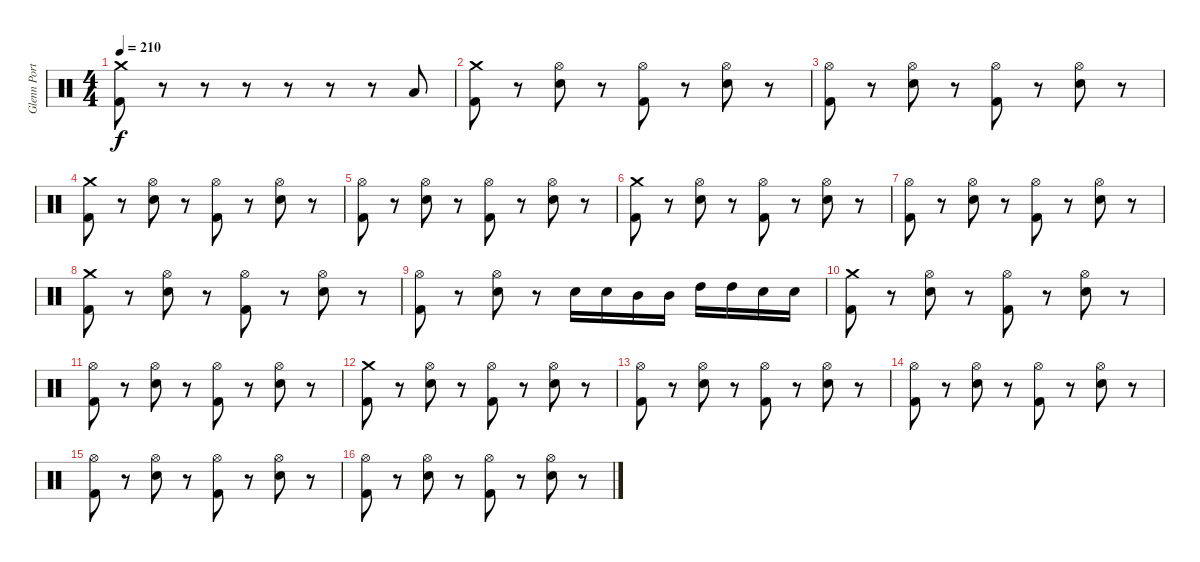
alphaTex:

\track ("Glenn Porter - Drums" "Glenn Port") {instrument percussion}
\staff {score}
\articulation defaults
\ts (4 4)
\tempo 210
\clef neutral
\ks c
("Crash medium (hit)" "Kick (hit) 2").8{dy f} r.8 r.8 r.8 r.8 r.8 r.8 "Low Tom (hit)".8 |
("Crash medium (hit)" "Kick (hit) 2").8 r.8 ("Hi-Hat (open)" "Electric Snare (hit)").8 r.8 ("Hi-Hat (open)" "Kick (hit) 2").8 r.8 ("Hi-Hat (open)" "Electric Snare (hit)").8 r.8 |
("Hi-Hat (open)" "Kick (hit) 2").8 r.8 ("Hi-Hat (open)" "Electric Snare (hit)").8 r.8 ("Hi-Hat (open)" "Kick (hit) 2").8 r.8 ("Hi-Hat (open)" "Electric Snare (hit)").8 r.8 |
("Crash medium (hit)" "Kick (hit) 2").8 r.8 ("Hi-Hat (open)" "Electric Snare (hit)").8 r.8 ("Hi-Hat (open)" "Kick (hit) 2").8 r.8 ("Hi-Hat (open)" "Electric Snare (hit)").8 r.8 |
("Hi-Hat (open)" "Kick (hit) 2").8 r.8 ("Hi-Hat (open)" "Electric Snare (hit)").8 r.8 ("Hi-Hat (open)" "Kick (hit) 2").8 r.8 ("Hi-Hat (open)" "Electric Snare (hit)").8 r.8 |
("Crash medium (hit)" "Kick (hit) 2").8 r.8 ("Hi-Hat (open)" "Electric Snare (hit)").8 r.8 ("Hi-Hat (open)" "Kick (hit) 2").8 r.8 ("Hi-Hat (open)" "Electric Snare (hit)").8 r.8 |
("Hi-Hat (open)" "Kick (hit) 2").8 r.8 ("Hi-Hat (open)" "Electric Snare (hit)").8 r.8 ("Hi-Hat (open)" "Kick (hit) 2").8 r.8 ("Hi-Hat (open)" "Electric Snare (hit)").8 r.8 |
("Crash medium (hit)" "Kick (hit) 2").8 r.8 ("Hi-Hat (open)" "Electric Snare (hit)").8 r.8 ("Hi-Hat (open)" "Kick (hit) 2").8 r.8 ("Hi-Hat (open)" "Electric Snare (hit)").8 r.8 |
("Hi-Hat (open)" "Kick (hit) 2").8 r.8 ("Hi-Hat (open)" "Electric Snare (hit)").8 r.8 "Electric Snare (hit)".16 "Electric Snare (hit)".16 "Mid Tom (hit)".16 "Mid Tom (hit)".16 "High Tom (hit)".16 "High Tom (hit)".16 "Electric Snare (hit)".16 "Electric Snare (hit)".16 |
("Crash medium (hit)" "Kick (hit) 2").8 r.8 ("Hi-Hat (open)" "Electric Snare (hit)").8 r.8 ("Hi-Hat (open)" "Kick (hit) 2").8 r.8 ("Hi-Hat (open)" "Electric Snare (hit)").8 r.8 |
("Hi-Hat (open)" "Kick (hit) 2").8 r.8 ("Hi-Hat (open)" "Electric Snare (hit)").8 r.8 ("Hi-Hat (open)" "Kick (hit) 2").8 r.8 ("Hi-Hat (open)" "Electric Snare (hit)").8 r.8 |
("Crash medium (hit)" "Kick (hit) 2").8 r.8 ("Hi-Hat (open)" "Electric Snare (hit)").8 r.8 ("Hi-Hat (open)" "Kick (hit) 2").8 r.8 ("Hi-Hat (open)" "Electric Snare (hit)").8 r.8 |
("Hi-Hat (open)" "Kick (hit) 2").8 r.8 ("Hi-Hat (open)" "Electric Snare (hit)").8 r.8 ("Hi-Hat (open)" "Kick (hit) 2").8 r.8 ("Hi-Hat (open)" "Electric Snare (hit)").8 r.8 |
("Hi-Hat (open)" "Kick (hit) 2").8 r.8 ("Hi-Hat (open)" "Electric Snare (hit)").8 r.8 ("Hi-Hat (open)" "Kick (hit) 2").8 r.8 ("Hi-Hat (open)" "Electric Snare (hit)").8 r.8 |
("Hi-Hat (open)" "Kick (hit) 2").8 r.8 ("Hi-Hat (open)" "Electric Snare (hit)").8 r.8 ("Hi-Hat (open)" "Kick (hit) 2").8 r.8 ("Hi-Hat (open)" "Electric Snare (hit)").8 r.8 |
("Hi-Hat (open)" "Kick (hit) 2").8 r.8 ("Hi-Hat (open)" "Electric Snare (hit)").8 r.8 ("Hi-Hat (open)" "Kick (hit) 2").8 r.8 ("Hi-Hat (open)" "Electric Snare (hit)").8 r.8
